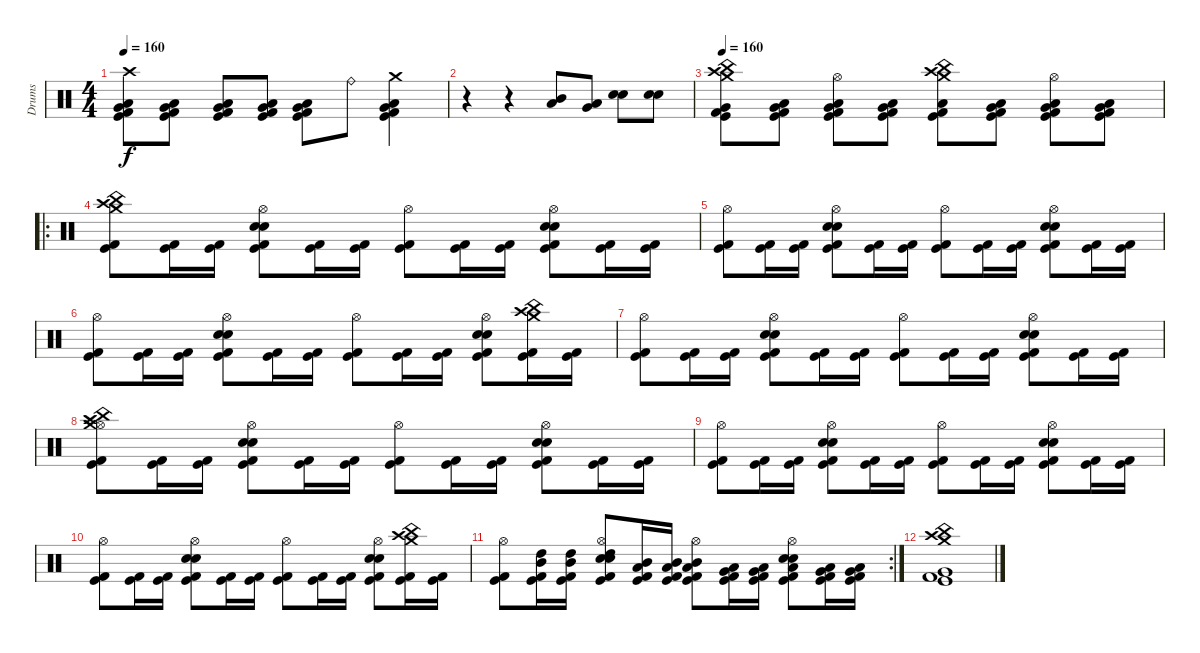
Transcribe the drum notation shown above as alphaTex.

\track ("Drums" "Drums") {instrument percussion}
\staff {score}
\articulation defaults
\ts (4 4)
\tempo 160
\clef neutral
\ks c
("Crash high (hit)" "Kick (hit) 2" "Very Low Tom (hit)" "Low Floor Tom (hit)" "Kick (hit)").8{dy f} ("Kick (hit) 2" "Very Low Tom (hit)" "Low Floor Tom (hit)" "Kick (hit)").8 ("Kick (hit) 2" "Very Low Tom (hit)" "Low Floor Tom (hit)" "Kick (hit)").8 ("Kick (hit) 2" "Very Low Tom (hit)" "Low Floor Tom (hit)" "Kick (hit)").8 ("Kick (hit) 2" "Very Low Tom (hit)" "Low Floor Tom (hit)" "Kick (hit)").8 "Ride (bell)".8 ("Crash medium (hit)" "Kick (hit) 2" "Very Low Tom (hit)" "Low Floor Tom (hit)" "Kick (hit)").4 |
r.4 r.4 ("Mid Tom (hit)" "Low Tom (hit)").8 ("Low Tom (hit)" "Very Low Tom (hit)").8 ("Snare (hit) 2" "Electric Snare (hit)").8 ("Electric Snare (hit)" "Snare (hit) 2").8 |
\tempo 160
("Crash high (hit)" "Crash medium (hit)" "Very Low Tom (hit)" "China (hit)" "Kick (hit) 2" "Kick (hit)").8 ("Very Low Tom (hit)" "Low Floor Tom (hit)" "Kick (hit) 2" "Kick (hit)").8 ("Hi-Hat (open)" "Very Low Tom (hit)" "Low Floor Tom (hit)" "Kick (hit) 2" "Kick (hit)").8 ("Very Low Tom (hit)" "Low Floor Tom (hit)" "Kick (hit) 2" "Kick (hit)").8 ("Crash high (hit)" "Crash medium (hit)" "Low Tom (hit)" "China (hit)" "Kick (hit) 2" "Kick (hit)").8 ("Low Tom (hit)" "Very Low Tom (hit)" "Kick (hit) 2" "Kick (hit)").8 ("Hi-Hat (open)" "Low Tom (hit)" "Very Low Tom (hit)" "Kick (hit) 2" "Kick (hit)").8 ("Low Tom (hit)" "Very Low Tom (hit)" "Kick (hit) 2" "Kick (hit)").8 |
\ro
("Crash high (hit)" "Crash medium (hit)" "China (hit)" "Kick (hit) 2" "Kick (hit)").8 ("Kick (hit) 2" "Kick (hit)").16 ("Kick (hit) 2" "Kick (hit)").16 ("Hi-Hat (open)" "Electric Snare (hit)" "Snare (hit) 2" "Kick (hit) 2" "Kick (hit)").8 ("Kick (hit) 2" "Kick (hit)").16 ("Kick (hit) 2" "Kick (hit)").16 ("Hi-Hat (open)" "Kick (hit) 2" "Kick (hit)").8 ("Kick (hit) 2" "Kick (hit)").16 ("Kick (hit) 2" "Kick (hit)").16 ("Hi-Hat (open)" "Electric Snare (hit)" "Snare (hit) 2" "Kick (hit) 2" "Kick (hit)").8 ("Kick (hit) 2" "Kick (hit)").16 ("Kick (hit) 2" "Kick (hit)").16 |
("Hi-Hat (open)" "Kick (hit) 2" "Kick (hit)").8 ("Kick (hit) 2" "Kick (hit)").16 ("Kick (hit) 2" "Kick (hit)").16 ("Hi-Hat (open)" "Electric Snare (hit)" "Snare (hit) 2" "Kick (hit) 2" "Kick (hit)").8 ("Kick (hit) 2" "Kick (hit)").16 ("Kick (hit) 2" "Kick (hit)").16 ("Hi-Hat (open)" "Kick (hit) 2" "Kick (hit)").8 ("Kick (hit) 2" "Kick (hit)").16 ("Kick (hit) 2" "Kick (hit)").16 ("Hi-Hat (open)" "Electric Snare (hit)" "Snare (hit) 2" "Kick (hit) 2" "Kick (hit)").8 ("Kick (hit) 2" "Kick (hit)").16 ("Kick (hit) 2" "Kick (hit)").16 |
("Hi-Hat (open)" "Kick (hit) 2" "Kick (hit)").8 ("Kick (hit) 2" "Kick (hit)").16 ("Kick (hit) 2" "Kick (hit)").16 ("Hi-Hat (open)" "Electric Snare (hit)" "Snare (hit) 2" "Kick (hit) 2" "Kick (hit)").8 ("Kick (hit) 2" "Kick (hit)").16 ("Kick (hit) 2" "Kick (hit)").16 ("Hi-Hat (open)" "Kick (hit) 2" "Kick (hit)").8 ("Kick (hit) 2" "Kick (hit)").16 ("Kick (hit) 2" "Kick (hit)").16 ("Hi-Hat (open)" "Electric Snare (hit)" "Snare (hit) 2" "Kick (hit) 2" "Kick (hit)").8 ("Crash high (hit)" "China (hit)" "Crash medium (hit)" "Kick (hit) 2" "Kick (hit)").16 ("Kick (hit) 2" "Kick (hit)").16 |
("Hi-Hat (open)" "Kick (hit) 2" "Kick (hit)").8 ("Kick (hit) 2" "Kick (hit)").16 ("Kick (hit) 2" "Kick (hit)").16 ("Hi-Hat (open)" "Electric Snare (hit)" "Snare (hit) 2" "Kick (hit) 2" "Kick (hit)").8 ("Kick (hit) 2" "Kick (hit)").16 ("Kick (hit) 2" "Kick (hit)").16 ("Hi-Hat (open)" "Kick (hit) 2" "Kick (hit)").8 ("Kick (hit) 2" "Kick (hit)").16 ("Kick (hit) 2" "Kick (hit)").16 ("Hi-Hat (open)" "Electric Snare (hit)" "Snare (hit) 2" "Kick (hit) 2" "Kick (hit)").8 ("Kick (hit) 2" "Kick (hit)").16 ("Kick (hit) 2" "Kick (hit)").16 |
("Crash high (hit)" "Hi-Hat (open)" "Crash medium (hit)" "China (hit)" "Kick (hit) 2" "Kick (hit)").8 ("Kick (hit) 2" "Kick (hit)").16 ("Kick (hit) 2" "Kick (hit)").16 ("Hi-Hat (open)" "Electric Snare (hit)" "Snare (hit) 2" "Kick (hit) 2" "Kick (hit)").8 ("Kick (hit) 2" "Kick (hit)").16 ("Kick (hit) 2" "Kick (hit)").16 ("Hi-Hat (open)" "Kick (hit) 2" "Kick (hit)").8 ("Kick (hit) 2" "Kick (hit)").16 ("Kick (hit) 2" "Kick (hit)").16 ("Hi-Hat (open)" "Electric Snare (hit)" "Snare (hit) 2" "Kick (hit) 2" "Kick (hit)").8 ("Kick (hit) 2" "Kick (hit)").16 ("Kick (hit) 2" "Kick (hit)").16 |
("Hi-Hat (open)" "Kick (hit) 2" "Kick (hit)").8 ("Kick (hit) 2" "Kick (hit)").16 ("Kick (hit) 2" "Kick (hit)").16 ("Hi-Hat (open)" "Electric Snare (hit)" "Snare (hit) 2" "Kick (hit) 2" "Kick (hit)").8 ("Kick (hit) 2" "Kick (hit)").16 ("Kick (hit) 2" "Kick (hit)").16 ("Hi-Hat (open)" "Kick (hit) 2" "Kick (hit)").8 ("Kick (hit) 2" "Kick (hit)").16 ("Kick (hit) 2" "Kick (hit)").16 ("Hi-Hat (open)" "Electric Snare (hit)" "Snare (hit) 2" "Kick (hit) 2" "Kick (hit)").8 ("Kick (hit) 2" "Kick (hit)").16 ("Kick (hit) 2" "Kick (hit)").16 |
("Hi-Hat (open)" "Kick (hit) 2" "Kick (hit)").8 ("Kick (hit) 2" "Kick (hit)").16 ("Kick (hit) 2" "Kick (hit)").16 ("Hi-Hat (open)" "Electric Snare (hit)" "Snare (hit) 2" "Kick (hit) 2" "Kick (hit)").8 ("Kick (hit) 2" "Kick (hit)").16 ("Kick (hit) 2" "Kick (hit)").16 ("Hi-Hat (open)" "Kick (hit) 2" "Kick (hit)").8 ("Kick (hit) 2" "Kick (hit)").16 ("Kick (hit) 2" "Kick (hit)").16 ("Hi-Hat (open)" "Electric Snare (hit)" "Snare (hit) 2" "Kick (hit) 2" "Kick (hit)").8 ("China (hit)" "Crash medium (hit)" "Crash high (hit)" "Kick (hit) 2" "Kick (hit)").16 ("Kick (hit) 2" "Kick (hit)").16 |
\rc 2
("Hi-Hat (open)" "Kick (hit) 2" "Kick (hit)").8 ("High Tom (hit)" "Mid Tom (hit)" "Kick (hit) 2" "Kick (hit)").16 ("High Tom (hit)" "Mid Tom (hit)" "Kick (hit) 2" "Kick (hit)").16 ("High Tom (hit)" "Hi-Hat (open)" "Electric Snare (hit)" "Snare (hit) 2" "Kick (hit) 2" "Kick (hit)").8 ("Low Tom (hit)" "Mid Tom (hit)" "Kick (hit) 2" "Kick (hit)").16 ("Low Tom (hit)" "Mid Tom (hit)" "Kick (hit) 2" "Kick (hit)").16 ("Hi-Hat (open)" "Low Tom (hit)" "Mid Tom (hit)" "Kick (hit) 2" "Kick (hit)").8 ("Very Low Tom (hit)" "Low Tom (hit)" "Kick (hit) 2" "Kick (hit)").16 ("Very Low Tom (hit)" "Low Tom (hit)" "Kick (hit) 2" "Kick (hit)").16 ("Low Tom (hit)" "Hi-Hat (open)" "Electric Snare (hit)" "Snare (hit) 2" "Kick (hit) 2" "Kick (hit)").8 ("Low Floor Tom (hit)" "Very Low Tom (hit)" "Kick (hit) 2" "Kick (hit)").16 ("Low Floor Tom (hit)" "Very Low Tom (hit)" "Kick (hit) 2" "Kick (hit)").16 |
("Crash high (hit)" "Crash medium (hit)" "China (hit)" "Very Low Tom (hit)" "Kick (hit) 2" "Kick (hit)").1
